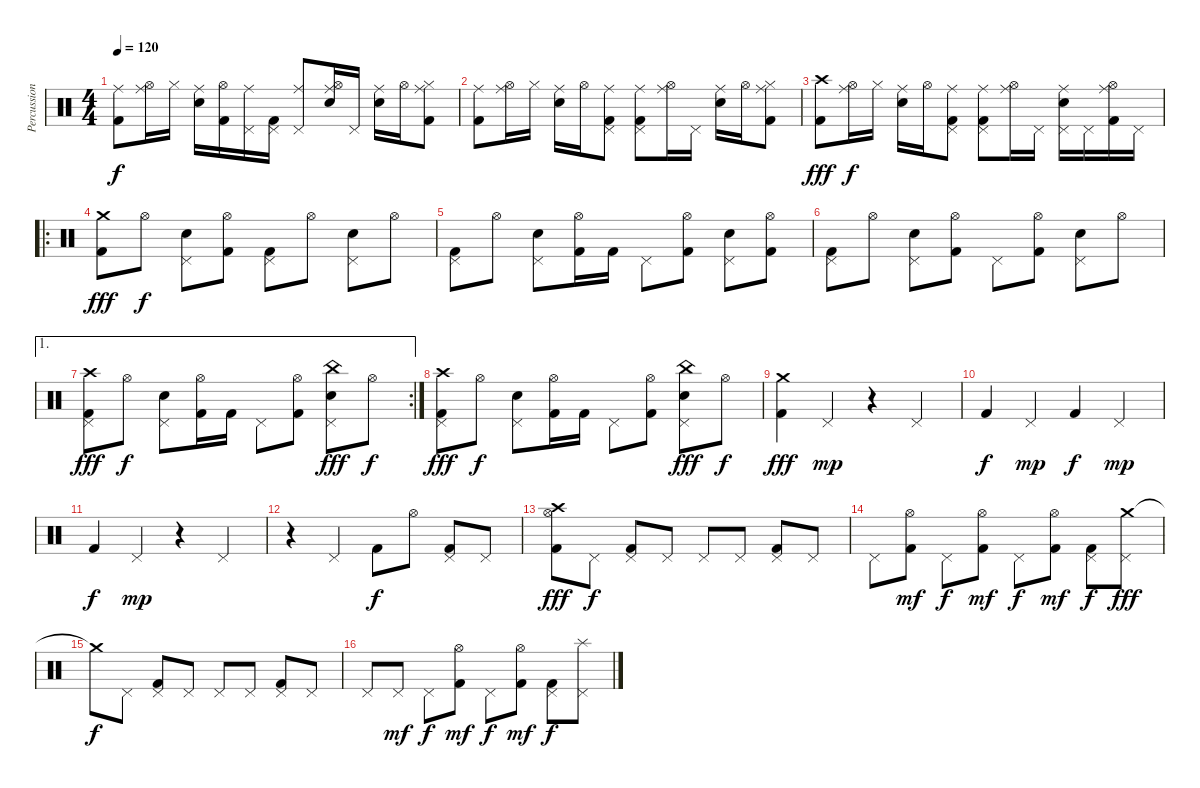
\track ("Percussion" "Percussion") {instrument percussion}
\staff {score}
\articulation defaults
\ts (4 4)
\tempo 120
\clef neutral
\ks c
("Ride (middle)" "Kick (hit) 2").8{dy f} ("Ride (middle)" "Hi-Hat (open)").16 "Hi-Hat (closed)".16 ("Ride (middle)" "Electric Snare (hit)").16 ("Hi-Hat (open)" "Kick (hit) 2").16 ("Ride (middle)" "Pedal Hi-Hat (hit)").16 ("Pedal Hi-Hat (hit)" "Kick (hit) 2").16 ("Ride (middle)" "Pedal Hi-Hat (hit)").8 ("Ride (middle)" "Hi-Hat (open)" "Electric Snare (hit)").16 "Pedal Hi-Hat (hit)".16 ("Ride (middle)" "Electric Snare (hit)").16 "Hi-Hat (open)".16 ("Ride (middle)" "Hi-Hat (closed)" "Kick (hit) 2").8 |
("Ride (middle)" "Kick (hit) 2").8 ("Ride (middle)" "Hi-Hat (open)").16 "Hi-Hat (closed)".16 ("Ride (middle)" "Electric Snare (hit)").16 "Hi-Hat (open)".16 ("Ride (middle)" "Pedal Hi-Hat (hit)" "Kick (hit) 2").8 ("Ride (middle)" "Pedal Hi-Hat (hit)" "Kick (hit) 2").8 ("Ride (middle)" "Hi-Hat (open)").16 "Pedal Hi-Hat (hit)".16 ("Ride (middle)" "Electric Snare (hit)").16 "Hi-Hat (open)".16 ("Ride (middle)" "Hi-Hat (closed)" "Kick (hit) 2").8 |
("Crash high (hit)" "Kick (hit) 2").8{dy fff} ("Ride (middle)" "Hi-Hat (open)").16{dy f} "Hi-Hat (closed)".16 ("Ride (middle)" "Electric Snare (hit)").16 "Hi-Hat (open)".16 ("Ride (middle)" "Pedal Hi-Hat (hit)" "Kick (hit) 2").8 ("Ride (middle)" "Pedal Hi-Hat (hit)" "Kick (hit) 2").8 ("Ride (middle)" "Hi-Hat (open)").16 "Pedal Hi-Hat (hit)".16 ("Ride (middle)" "Pedal Hi-Hat (hit)" "Electric Snare (hit)").16 "Pedal Hi-Hat (hit)".16 ("Ride (middle)" "Hi-Hat (open)" "Kick (hit) 2").16 "Pedal Hi-Hat (hit)".16 |
\ro
("Crash medium (hit)" "Kick (hit) 2").8{dy fff} "Hi-Hat (open)".8{dy f} ("Pedal Hi-Hat (hit)" "Electric Snare (hit)").8 ("Hi-Hat (open)" "Kick (hit) 2").8 ("Pedal Hi-Hat (hit)" "Kick (hit) 2").8 "Hi-Hat (open)".8 ("Pedal Hi-Hat (hit)" "Electric Snare (hit)").8 "Hi-Hat (open)".8 |
("Pedal Hi-Hat (hit)" "Kick (hit) 2").8 "Hi-Hat (open)".8 ("Pedal Hi-Hat (hit)" "Electric Snare (hit)").8 ("Hi-Hat (open)" "Kick (hit) 2").16 "Kick (hit) 2".16 "Pedal Hi-Hat (hit)".8 ("Hi-Hat (open)" "Kick (hit) 2").8 ("Pedal Hi-Hat (hit)" "Electric Snare (hit)").8 ("Hi-Hat (open)" "Kick (hit) 2").8 |
("Pedal Hi-Hat (hit)" "Kick (hit) 2").8 "Hi-Hat (open)".8 ("Pedal Hi-Hat (hit)" "Electric Snare (hit)").8 ("Hi-Hat (open)" "Kick (hit) 2").8 "Pedal Hi-Hat (hit)".8 ("Hi-Hat (open)" "Kick (hit) 2").8 ("Pedal Hi-Hat (hit)" "Electric Snare (hit)").8 "Hi-Hat (open)".8 |
\ae 1
\rc 2
("Crash high (hit)" "Pedal Hi-Hat (hit)" "Kick (hit) 2").8{dy fff} "Hi-Hat (open)".8{dy f} ("Pedal Hi-Hat (hit)" "Electric Snare (hit)").8 ("Hi-Hat (open)" "Kick (hit) 2").16 "Kick (hit) 2".16 "Pedal Hi-Hat (hit)".8 ("Hi-Hat (open)" "Kick (hit) 2").8 ("China (hit)" "Pedal Hi-Hat (hit)" "Electric Snare (hit)").8{dy fff} "Hi-Hat (open)".8{dy f} |
("Crash high (hit)" "Pedal Hi-Hat (hit)" "Kick (hit) 2").8{dy fff} "Hi-Hat (open)".8{dy f} ("Pedal Hi-Hat (hit)" "Electric Snare (hit)").8 ("Hi-Hat (open)" "Kick (hit) 2").16 "Kick (hit) 2".16 "Pedal Hi-Hat (hit)".8 ("Hi-Hat (open)" "Kick (hit) 2").8 ("China (hit)" "Pedal Hi-Hat (hit)" "Electric Snare (hit)").8{dy fff} "Hi-Hat (open)".8{dy f} |
("Crash medium (hit)" "Kick (hit) 2").4{dy fff} "Pedal Hi-Hat (hit)".4{dy mp} r.4 "Pedal Hi-Hat (hit)".4 |
"Kick (hit) 2".4{dy f} "Pedal Hi-Hat (hit)".4{dy mp} "Kick (hit) 2".4{dy f} "Pedal Hi-Hat (hit)".4{dy mp} |
"Kick (hit) 2".4{dy f} "Pedal Hi-Hat (hit)".4{dy mp} r.4 "Pedal Hi-Hat (hit)".4 |
r.4 "Pedal Hi-Hat (hit)".4 "Kick (hit) 2".8{dy f} "Hi-Hat (open)".8 ("Pedal Hi-Hat (hit)" "Kick (hit) 2").8 "Pedal Hi-Hat (hit)".8 |
("Crash high (hit)" "Hi-Hat (open)" "Kick (hit) 2").8{dy fff} "Pedal Hi-Hat (hit)".8{dy f} ("Pedal Hi-Hat (hit)" "Kick (hit) 2").8 "Pedal Hi-Hat (hit)".8 "Pedal Hi-Hat (hit)".8 "Pedal Hi-Hat (hit)".8 ("Pedal Hi-Hat (hit)" "Kick (hit) 2").8 "Pedal Hi-Hat (hit)".8 |
"Pedal Hi-Hat (hit)".8 ("Hi-Hat (open)" "Kick (hit) 2").8{dy mf} "Pedal Hi-Hat (hit)".8{dy f} ("Hi-Hat (open)" "Kick (hit) 2").8{dy mf} "Pedal Hi-Hat (hit)".8{dy f} ("Hi-Hat (open)" "Kick (hit) 2").8{dy mf} ("Pedal Hi-Hat (hit)" "Kick (hit) 2").8{dy f} ("Crash medium (hit)" "Pedal Hi-Hat (hit)").8{dy fff} |
"Crash medium (hit)"{t}.8{dy f} "Pedal Hi-Hat (hit)".8 ("Pedal Hi-Hat (hit)" "Kick (hit) 2").8 "Pedal Hi-Hat (hit)".8 "Pedal Hi-Hat (hit)".8 "Pedal Hi-Hat (hit)".8 ("Pedal Hi-Hat (hit)" "Kick (hit) 2").8 "Pedal Hi-Hat (hit)".8 |
"Pedal Hi-Hat (hit)".8 "Pedal Hi-Hat (hit)".8{dy mf} "Pedal Hi-Hat (hit)".8{dy f} ("Hi-Hat (open)" "Kick (hit) 2").8{dy mf} "Pedal Hi-Hat (hit)".8{dy f} ("Hi-Hat (open)" "Kick (hit) 2").8{dy mf} ("Pedal Hi-Hat (hit)" "Kick (hit) 2").8{dy f} ("Splash (hit)" "Pedal Hi-Hat (hit)").8
